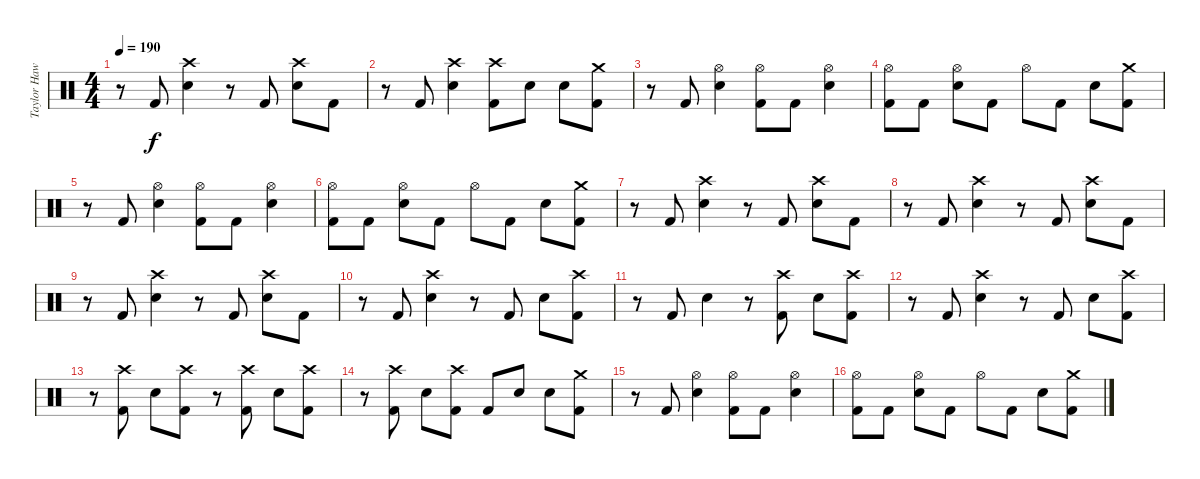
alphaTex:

\track ("Taylor Hawkins (Drums)" "Taylor Haw") {instrument percussion}
\staff {score}
\articulation defaults
\ts (4 4)
\tempo 190
\clef neutral
\ks c
r.8{dy f} "Kick (hit) 2".8 ("Crash high (hit)" "Snare (hit) 2").4 r.8 "Kick (hit) 2".8 ("Crash high (hit)" "Snare (hit) 2").8 "Kick (hit) 2".8 |
r.8 "Kick (hit) 2".8 ("Crash high (hit)" "Snare (hit) 2").4 ("Crash high (hit)" "Kick (hit) 2").8 "Snare (hit) 2".8 "Snare (hit) 2".8 ("Crash medium (hit)" "Kick (hit) 2").8 |
r.8 "Kick (hit) 2".8 ("Hi-Hat (open)" "Snare (hit) 2").4 ("Hi-Hat (open)" "Kick (hit) 2").8 "Kick (hit) 2".8 ("Hi-Hat (open)" "Snare (hit) 2").4 |
("Hi-Hat (open)" "Kick (hit) 2").8 "Kick (hit) 2".8 ("Hi-Hat (open)" "Snare (hit) 2").8 "Kick (hit) 2".8 "Hi-Hat (open)".8 "Kick (hit) 2".8 "Snare (hit) 2".8 ("Crash medium (hit)" "Kick (hit) 2").8 |
r.8 "Kick (hit) 2".8 ("Hi-Hat (open)" "Snare (hit) 2").4 ("Hi-Hat (open)" "Kick (hit) 2").8 "Kick (hit) 2".8 ("Hi-Hat (open)" "Snare (hit) 2").4 |
("Hi-Hat (open)" "Kick (hit) 2").8 "Kick (hit) 2".8 ("Hi-Hat (open)" "Snare (hit) 2").8 "Kick (hit) 2".8 "Hi-Hat (open)".8 "Kick (hit) 2".8 "Snare (hit) 2".8 ("Crash medium (hit)" "Kick (hit) 2").8 |
r.8 "Kick (hit) 2".8 ("Crash high (hit)" "Snare (hit) 2").4 r.8 "Kick (hit) 2".8 ("Crash high (hit)" "Snare (hit) 2").8 "Kick (hit) 2".8 |
r.8 "Kick (hit) 2".8 ("Crash high (hit)" "Snare (hit) 2").4 r.8 "Kick (hit) 2".8 ("Crash high (hit)" "Snare (hit) 2").8 "Kick (hit) 2".8 |
r.8 "Kick (hit) 2".8 ("Crash high (hit)" "Snare (hit) 2").4 r.8 "Kick (hit) 2".8 ("Crash high (hit)" "Snare (hit) 2").8 "Kick (hit) 2".8 |
r.8 "Kick (hit) 2".8 ("Crash high (hit)" "Snare (hit) 2").4 r.8 "Kick (hit) 2".8 "Snare (hit) 2".8 ("Crash high (hit)" "Kick (hit) 2").8 |
r.8 "Kick (hit) 2".8 "Snare (hit) 2".4 r.8 ("Crash high (hit)" "Kick (hit) 2").8 "Snare (hit) 2".8 ("Crash high (hit)" "Kick (hit) 2").8 |
r.8 "Kick (hit) 2".8 ("Crash high (hit)" "Snare (hit) 2").4 r.8 "Kick (hit) 2".8 "Snare (hit) 2".8 ("Crash high (hit)" "Kick (hit) 2").8 |
r.8 ("Crash high (hit)" "Kick (hit) 2").8 "Snare (hit) 2".8 ("Crash high (hit)" "Kick (hit) 2").8 r.8 ("Crash high (hit)" "Kick (hit) 2").8 "Snare (hit) 2".8 ("Crash high (hit)" "Kick (hit) 2").8 |
r.8 ("Crash high (hit)" "Kick (hit) 2").8 "Snare (hit) 2".8 ("Crash high (hit)" "Kick (hit) 2").8 "Kick (hit) 2".8 "Snare (hit) 2".8 "Snare (hit) 2".8 ("Crash medium (hit)" "Kick (hit) 2").8 |
r.8 "Kick (hit) 2".8 ("Hi-Hat (open)" "Snare (hit) 2").4 ("Hi-Hat (open)" "Kick (hit) 2").8 "Kick (hit) 2".8 ("Hi-Hat (open)" "Snare (hit) 2").4 |
("Hi-Hat (open)" "Kick (hit) 2").8 "Kick (hit) 2".8 ("Hi-Hat (open)" "Snare (hit) 2").8 "Kick (hit) 2".8 "Hi-Hat (open)".8 "Kick (hit) 2".8 "Snare (hit) 2".8 ("Crash medium (hit)" "Kick (hit) 2").8
